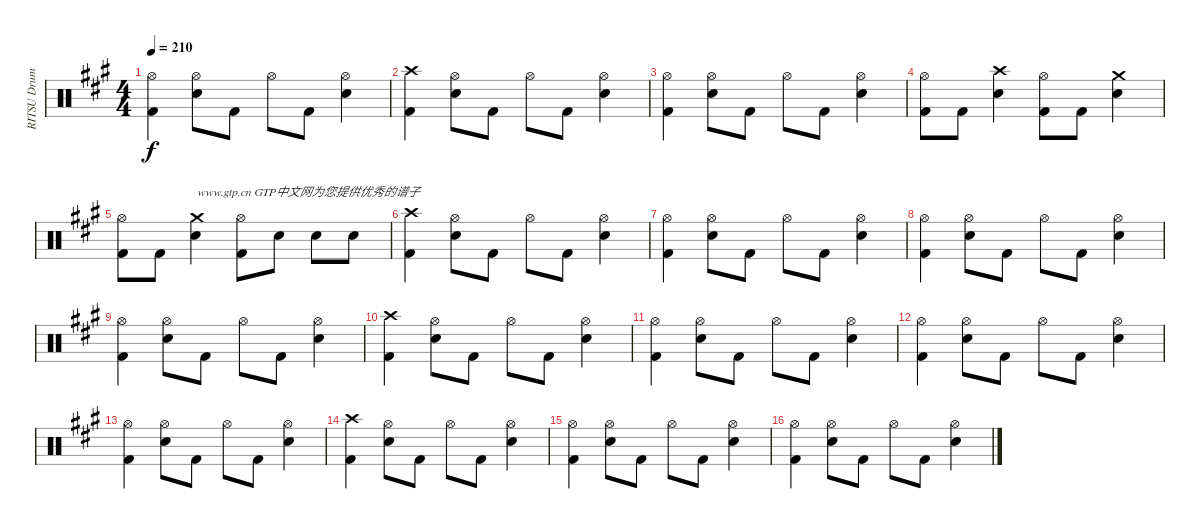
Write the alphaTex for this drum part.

\track ("RITSU Drums" "RITSU Drum") {instrument percussion}
\staff {score}
\articulation defaults
\ts (4 4)
\tempo 210
\clef neutral
\ks a
("Hi-Hat (open)" "Kick (hit) 2").4{dy f} ("Hi-Hat (open)" "Electric Snare (hit)").8 "Kick (hit) 2".8 "Hi-Hat (open)".8 "Kick (hit) 2".8 ("Hi-Hat (open)" "Electric Snare (hit)").4 |
("Crash high (hit)" "Kick (hit) 2").4 ("Hi-Hat (open)" "Electric Snare (hit)").8 "Kick (hit) 2".8 "Hi-Hat (open)".8 "Kick (hit) 2".8 ("Hi-Hat (open)" "Electric Snare (hit)").4 |
("Hi-Hat (open)" "Kick (hit) 2").4 ("Hi-Hat (open)" "Electric Snare (hit)").8 "Kick (hit) 2".8 "Hi-Hat (open)".8 "Kick (hit) 2".8 ("Hi-Hat (open)" "Electric Snare (hit)").4 |
("Hi-Hat (open)" "Kick (hit) 2").8 "Kick (hit) 2".8 ("Crash high (hit)" "Electric Snare (hit)").4 ("Hi-Hat (open)" "Kick (hit) 2").8 "Kick (hit) 2".8 ("Crash medium (hit)" "Electric Snare (hit)").4 |
("Hi-Hat (open)" "Kick (hit) 2").8 "Kick (hit) 2".8 ("Crash medium (hit)" "Electric Snare (hit)").4{txt "www.gtp.cn GTP中文网为您提供优秀的谱子"} ("Hi-Hat (open)" "Kick (hit) 2").8 "Electric Snare (hit)".8 "Electric Snare (hit)".8 "Electric Snare (hit)".8 |
("Crash high (hit)" "Kick (hit) 2").4 ("Hi-Hat (open)" "Electric Snare (hit)").8 "Kick (hit) 2".8 "Hi-Hat (open)".8 "Kick (hit) 2".8 ("Hi-Hat (open)" "Electric Snare (hit)").4 |
("Hi-Hat (open)" "Kick (hit) 2").4 ("Hi-Hat (open)" "Electric Snare (hit)").8 "Kick (hit) 2".8 "Hi-Hat (open)".8 "Kick (hit) 2".8 ("Hi-Hat (open)" "Electric Snare (hit)").4 |
("Hi-Hat (open)" "Kick (hit) 2").4 ("Hi-Hat (open)" "Electric Snare (hit)").8 "Kick (hit) 2".8 "Hi-Hat (open)".8 "Kick (hit) 2".8 ("Hi-Hat (open)" "Electric Snare (hit)").4 |
("Hi-Hat (open)" "Kick (hit) 2").4 ("Hi-Hat (open)" "Electric Snare (hit)").8 "Kick (hit) 2".8 "Hi-Hat (open)".8 "Kick (hit) 2".8 ("Hi-Hat (open)" "Electric Snare (hit)").4 |
("Crash high (hit)" "Kick (hit) 2").4 ("Hi-Hat (open)" "Electric Snare (hit)").8 "Kick (hit) 2".8 "Hi-Hat (open)".8 "Kick (hit) 2".8 ("Hi-Hat (open)" "Electric Snare (hit)").4 |
("Hi-Hat (open)" "Kick (hit) 2").4 ("Hi-Hat (open)" "Electric Snare (hit)").8 "Kick (hit) 2".8 "Hi-Hat (open)".8 "Kick (hit) 2".8 ("Hi-Hat (open)" "Electric Snare (hit)").4 |
("Hi-Hat (open)" "Kick (hit) 2").4 ("Hi-Hat (open)" "Electric Snare (hit)").8 "Kick (hit) 2".8 "Hi-Hat (open)".8 "Kick (hit) 2".8 ("Hi-Hat (open)" "Electric Snare (hit)").4 |
("Hi-Hat (open)" "Kick (hit) 2").4 ("Hi-Hat (open)" "Electric Snare (hit)").8 "Kick (hit) 2".8 "Hi-Hat (open)".8 "Kick (hit) 2".8 ("Hi-Hat (open)" "Electric Snare (hit)").4 |
("Crash high (hit)" "Kick (hit) 2").4 ("Hi-Hat (open)" "Electric Snare (hit)").8 "Kick (hit) 2".8 "Hi-Hat (open)".8 "Kick (hit) 2".8 ("Hi-Hat (open)" "Electric Snare (hit)").4 |
("Hi-Hat (open)" "Kick (hit) 2").4 ("Hi-Hat (open)" "Electric Snare (hit)").8 "Kick (hit) 2".8 "Hi-Hat (open)".8 "Kick (hit) 2".8 ("Hi-Hat (open)" "Electric Snare (hit)").4 |
("Hi-Hat (open)" "Kick (hit) 2").4 ("Hi-Hat (open)" "Electric Snare (hit)").8 "Kick (hit) 2".8 "Hi-Hat (open)".8 "Kick (hit) 2".8 ("Hi-Hat (open)" "Electric Snare (hit)").4
